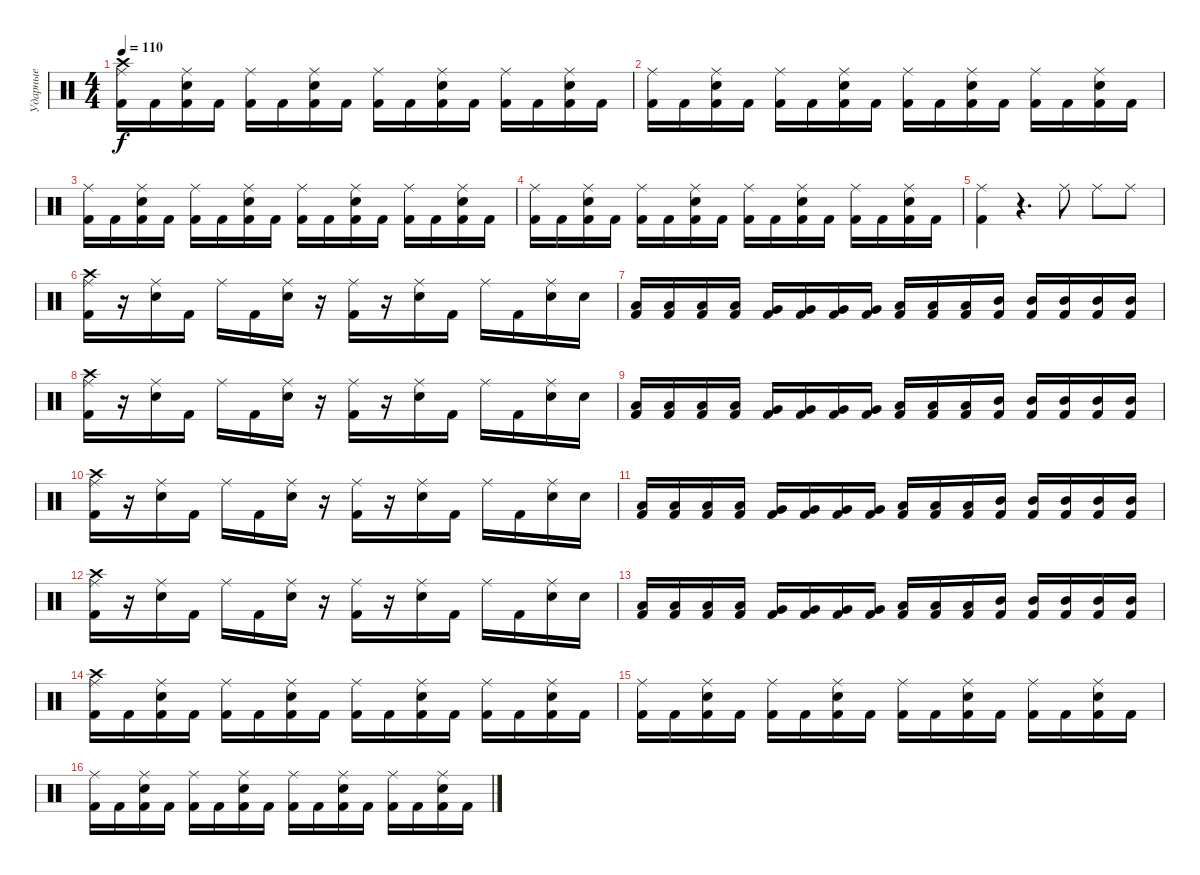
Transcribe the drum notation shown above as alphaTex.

\track ("Ударные" "Ударные") {instrument percussion}
\staff {score}
\articulation defaults
\ts (4 4)
\tempo 110
\clef neutral
\ks c
("Ride (middle)" "Crash high (hit)" "Kick (hit) 2").16{dy f} "Kick (hit) 2".16 ("Ride (middle)" "Snare (hit) 2" "Kick (hit) 2").16 "Kick (hit) 2".16 ("Ride (middle)" "Kick (hit) 2").16 "Kick (hit) 2".16 ("Ride (middle)" "Snare (hit) 2" "Kick (hit) 2").16 "Kick (hit) 2".16 ("Ride (middle)" "Kick (hit) 2").16 "Kick (hit) 2".16 ("Ride (middle)" "Snare (hit) 2" "Kick (hit) 2").16 "Kick (hit) 2".16 ("Ride (middle)" "Kick (hit) 2").16 "Kick (hit) 2".16 ("Ride (middle)" "Snare (hit) 2" "Kick (hit) 2").16 "Kick (hit) 2".16 |
("Ride (middle)" "Kick (hit) 2").16 "Kick (hit) 2".16 ("Ride (middle)" "Snare (hit) 2" "Kick (hit) 2").16 "Kick (hit) 2".16 ("Ride (middle)" "Kick (hit) 2").16 "Kick (hit) 2".16 ("Ride (middle)" "Snare (hit) 2" "Kick (hit) 2").16 "Kick (hit) 2".16 ("Ride (middle)" "Kick (hit) 2").16 "Kick (hit) 2".16 ("Ride (middle)" "Snare (hit) 2" "Kick (hit) 2").16 "Kick (hit) 2".16 ("Ride (middle)" "Kick (hit) 2").16 "Kick (hit) 2".16 ("Ride (middle)" "Snare (hit) 2" "Kick (hit) 2").16 "Kick (hit) 2".16 |
("Ride (middle)" "Kick (hit) 2").16 "Kick (hit) 2".16 ("Ride (middle)" "Snare (hit) 2" "Kick (hit) 2").16 "Kick (hit) 2".16 ("Ride (middle)" "Kick (hit) 2").16 "Kick (hit) 2".16 ("Ride (middle)" "Snare (hit) 2" "Kick (hit) 2").16 "Kick (hit) 2".16 ("Ride (middle)" "Kick (hit) 2").16 "Kick (hit) 2".16 ("Ride (middle)" "Snare (hit) 2" "Kick (hit) 2").16 "Kick (hit) 2".16 ("Ride (middle)" "Kick (hit) 2").16 "Kick (hit) 2".16 ("Ride (middle)" "Snare (hit) 2" "Kick (hit) 2").16 "Kick (hit) 2".16 |
("Ride (middle)" "Kick (hit) 2").16 "Kick (hit) 2".16 ("Ride (middle)" "Snare (hit) 2" "Kick (hit) 2").16 "Kick (hit) 2".16 ("Ride (middle)" "Kick (hit) 2").16 "Kick (hit) 2".16 ("Ride (middle)" "Snare (hit) 2" "Kick (hit) 2").16 "Kick (hit) 2".16 ("Ride (middle)" "Kick (hit) 2").16 "Kick (hit) 2".16 ("Ride (middle)" "Snare (hit) 2" "Kick (hit) 2").16 "Kick (hit) 2".16 ("Ride (middle)" "Kick (hit) 2").16 "Kick (hit) 2".16 ("Ride (middle)" "Snare (hit) 2" "Kick (hit) 2").16 "Kick (hit) 2".16 |
("Ride (middle)" "Kick (hit) 2").4 r.4{d} "Ride (middle)".8 "Ride (middle)".8 "Ride (middle)".8 |
("Ride (middle)" "Crash high (hit)" "Kick (hit) 2").16 r.16 ("Ride (middle)" "Snare (hit) 2").16 "Kick (hit) 2".16 "Ride (middle)".16 "Kick (hit) 2".16 ("Ride (middle)" "Snare (hit) 2").16 r.16 ("Ride (middle)" "Kick (hit) 2").16 r.16 ("Ride (middle)" "Snare (hit) 2").16 "Kick (hit) 2".16 "Ride (middle)".16 "Kick (hit) 2".16 ("Ride (middle)" "Snare (hit) 2").16 "Snare (hit) 2".16 |
("Low Floor Tom (hit)" "Kick (hit) 2").16 ("Low Floor Tom (hit)" "Kick (hit) 2").16 ("Low Floor Tom (hit)" "Kick (hit) 2").16 ("Low Floor Tom (hit)" "Kick (hit) 2").16 ("Very Low Tom (hit)" "Kick (hit) 2").16 ("Very Low Tom (hit)" "Kick (hit) 2").16 ("Very Low Tom (hit)" "Kick (hit) 2").16 ("Very Low Tom (hit)" "Kick (hit) 2").16 ("Low Tom (hit)" "Kick (hit) 2").16 ("Low Tom (hit)" "Kick (hit) 2").16 ("Low Tom (hit)" "Kick (hit) 2").16 ("Mid Tom (hit)" "Kick (hit) 2").16 ("Mid Tom (hit)" "Kick (hit) 2").16 ("Mid Tom (hit)" "Kick (hit) 2").16 ("Mid Tom (hit)" "Kick (hit) 2").16 ("Mid Tom (hit)" "Kick (hit) 2").16 |
("Ride (middle)" "Crash high (hit)" "Kick (hit) 2").16 r.16 ("Ride (middle)" "Snare (hit) 2").16 "Kick (hit) 2".16 "Ride (middle)".16 "Kick (hit) 2".16 ("Ride (middle)" "Snare (hit) 2").16 r.16 ("Ride (middle)" "Kick (hit) 2").16 r.16 ("Ride (middle)" "Snare (hit) 2").16 "Kick (hit) 2".16 "Ride (middle)".16 "Kick (hit) 2".16 ("Ride (middle)" "Snare (hit) 2").16 "Snare (hit) 2".16 |
("Low Floor Tom (hit)" "Kick (hit) 2").16 ("Low Floor Tom (hit)" "Kick (hit) 2").16 ("Low Floor Tom (hit)" "Kick (hit) 2").16 ("Low Floor Tom (hit)" "Kick (hit) 2").16 ("Very Low Tom (hit)" "Kick (hit) 2").16 ("Very Low Tom (hit)" "Kick (hit) 2").16 ("Very Low Tom (hit)" "Kick (hit) 2").16 ("Very Low Tom (hit)" "Kick (hit) 2").16 ("Low Tom (hit)" "Kick (hit) 2").16 ("Low Tom (hit)" "Kick (hit) 2").16 ("Low Tom (hit)" "Kick (hit) 2").16 ("Mid Tom (hit)" "Kick (hit) 2").16 ("Mid Tom (hit)" "Kick (hit) 2").16 ("Mid Tom (hit)" "Kick (hit) 2").16 ("Mid Tom (hit)" "Kick (hit) 2").16 ("Mid Tom (hit)" "Kick (hit) 2").16 |
("Ride (middle)" "Crash high (hit)" "Kick (hit) 2").16 r.16 ("Ride (middle)" "Snare (hit) 2").16 "Kick (hit) 2".16 "Ride (middle)".16 "Kick (hit) 2".16 ("Ride (middle)" "Snare (hit) 2").16 r.16 ("Ride (middle)" "Kick (hit) 2").16 r.16 ("Ride (middle)" "Snare (hit) 2").16 "Kick (hit) 2".16 "Ride (middle)".16 "Kick (hit) 2".16 ("Ride (middle)" "Snare (hit) 2").16 "Snare (hit) 2".16 |
("Low Floor Tom (hit)" "Kick (hit) 2").16 ("Low Floor Tom (hit)" "Kick (hit) 2").16 ("Low Floor Tom (hit)" "Kick (hit) 2").16 ("Low Floor Tom (hit)" "Kick (hit) 2").16 ("Very Low Tom (hit)" "Kick (hit) 2").16 ("Very Low Tom (hit)" "Kick (hit) 2").16 ("Very Low Tom (hit)" "Kick (hit) 2").16 ("Very Low Tom (hit)" "Kick (hit) 2").16 ("Low Tom (hit)" "Kick (hit) 2").16 ("Low Tom (hit)" "Kick (hit) 2").16 ("Low Tom (hit)" "Kick (hit) 2").16 ("Mid Tom (hit)" "Kick (hit) 2").16 ("Mid Tom (hit)" "Kick (hit) 2").16 ("Mid Tom (hit)" "Kick (hit) 2").16 ("Mid Tom (hit)" "Kick (hit) 2").16 ("Mid Tom (hit)" "Kick (hit) 2").16 |
("Ride (middle)" "Crash high (hit)" "Kick (hit) 2").16 r.16 ("Ride (middle)" "Snare (hit) 2").16 "Kick (hit) 2".16 "Ride (middle)".16 "Kick (hit) 2".16 ("Ride (middle)" "Snare (hit) 2").16 r.16 ("Ride (middle)" "Kick (hit) 2").16 r.16 ("Ride (middle)" "Snare (hit) 2").16 "Kick (hit) 2".16 "Ride (middle)".16 "Kick (hit) 2".16 ("Ride (middle)" "Snare (hit) 2").16 "Snare (hit) 2".16 |
("Low Floor Tom (hit)" "Kick (hit) 2").16 ("Low Floor Tom (hit)" "Kick (hit) 2").16 ("Low Floor Tom (hit)" "Kick (hit) 2").16 ("Low Floor Tom (hit)" "Kick (hit) 2").16 ("Very Low Tom (hit)" "Kick (hit) 2").16 ("Very Low Tom (hit)" "Kick (hit) 2").16 ("Very Low Tom (hit)" "Kick (hit) 2").16 ("Very Low Tom (hit)" "Kick (hit) 2").16 ("Low Tom (hit)" "Kick (hit) 2").16 ("Low Tom (hit)" "Kick (hit) 2").16 ("Low Tom (hit)" "Kick (hit) 2").16 ("Mid Tom (hit)" "Kick (hit) 2").16 ("Mid Tom (hit)" "Kick (hit) 2").16 ("Mid Tom (hit)" "Kick (hit) 2").16 ("Mid Tom (hit)" "Kick (hit) 2").16 ("Mid Tom (hit)" "Kick (hit) 2").16 |
("Ride (middle)" "Crash high (hit)" "Kick (hit) 2").16 "Kick (hit) 2".16 ("Ride (middle)" "Snare (hit) 2" "Kick (hit) 2").16 "Kick (hit) 2".16 ("Ride (middle)" "Kick (hit) 2").16 "Kick (hit) 2".16 ("Ride (middle)" "Snare (hit) 2" "Kick (hit) 2").16 "Kick (hit) 2".16 ("Ride (middle)" "Kick (hit) 2").16 "Kick (hit) 2".16 ("Ride (middle)" "Snare (hit) 2" "Kick (hit) 2").16 "Kick (hit) 2".16 ("Ride (middle)" "Kick (hit) 2").16 "Kick (hit) 2".16 ("Ride (middle)" "Snare (hit) 2" "Kick (hit) 2").16 "Kick (hit) 2".16 |
("Ride (middle)" "Kick (hit) 2").16 "Kick (hit) 2".16 ("Ride (middle)" "Snare (hit) 2" "Kick (hit) 2").16 "Kick (hit) 2".16 ("Ride (middle)" "Kick (hit) 2").16 "Kick (hit) 2".16 ("Ride (middle)" "Snare (hit) 2" "Kick (hit) 2").16 "Kick (hit) 2".16 ("Ride (middle)" "Kick (hit) 2").16 "Kick (hit) 2".16 ("Ride (middle)" "Snare (hit) 2" "Kick (hit) 2").16 "Kick (hit) 2".16 ("Ride (middle)" "Kick (hit) 2").16 "Kick (hit) 2".16 ("Ride (middle)" "Snare (hit) 2" "Kick (hit) 2").16 "Kick (hit) 2".16 |
("Ride (middle)" "Kick (hit) 2").16 "Kick (hit) 2".16 ("Ride (middle)" "Snare (hit) 2" "Kick (hit) 2").16 "Kick (hit) 2".16 ("Ride (middle)" "Kick (hit) 2").16 "Kick (hit) 2".16 ("Ride (middle)" "Snare (hit) 2" "Kick (hit) 2").16 "Kick (hit) 2".16 ("Ride (middle)" "Kick (hit) 2").16 "Kick (hit) 2".16 ("Ride (middle)" "Snare (hit) 2" "Kick (hit) 2").16 "Kick (hit) 2".16 ("Ride (middle)" "Kick (hit) 2").16 "Kick (hit) 2".16 ("Ride (middle)" "Snare (hit) 2" "Kick (hit) 2").16 "Kick (hit) 2".16
